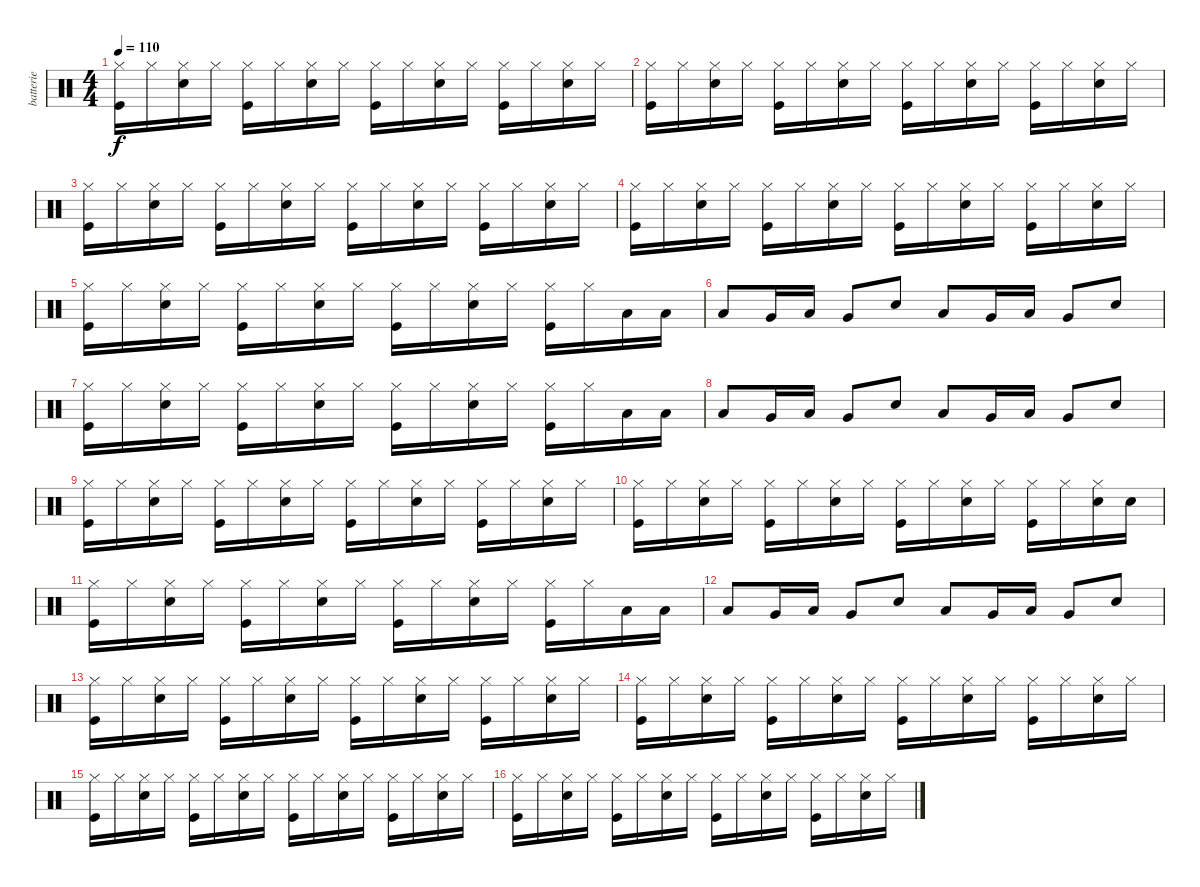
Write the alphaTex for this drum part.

\track ("batterie" "batterie") {instrument percussion}
\staff {score}
\articulation defaults
\ts (4 4)
\tempo 110
\clef neutral
\ks c
("Hi-Hat (closed)" "Kick (hit)").16{dy f} "Hi-Hat (closed)".16 ("Hi-Hat (closed)" "Snare (hit) 2").16 "Hi-Hat (closed)".16 ("Hi-Hat (closed)" "Kick (hit)").16 "Hi-Hat (closed)".16 ("Hi-Hat (closed)" "Snare (hit) 2").16 "Hi-Hat (closed)".16 ("Hi-Hat (closed)" "Kick (hit)").16 "Hi-Hat (closed)".16 ("Hi-Hat (closed)" "Snare (hit) 2").16 "Hi-Hat (closed)".16 ("Hi-Hat (closed)" "Kick (hit)").16 "Hi-Hat (closed)".16 ("Hi-Hat (closed)" "Snare (hit) 2").16 "Hi-Hat (closed)".16 |
("Hi-Hat (closed)" "Kick (hit)").16 "Hi-Hat (closed)".16 ("Hi-Hat (closed)" "Snare (hit) 2").16 "Hi-Hat (closed)".16 ("Hi-Hat (closed)" "Kick (hit)").16 "Hi-Hat (closed)".16 ("Hi-Hat (closed)" "Snare (hit) 2").16 "Hi-Hat (closed)".16 ("Hi-Hat (closed)" "Kick (hit)").16 "Hi-Hat (closed)".16 ("Hi-Hat (closed)" "Snare (hit) 2").16 "Hi-Hat (closed)".16 ("Hi-Hat (closed)" "Kick (hit)").16 "Hi-Hat (closed)".16 ("Hi-Hat (closed)" "Snare (hit) 2").16 "Hi-Hat (closed)".16 |
("Hi-Hat (closed)" "Kick (hit)").16 "Hi-Hat (closed)".16 ("Hi-Hat (closed)" "Snare (hit) 2").16 "Hi-Hat (closed)".16 ("Hi-Hat (closed)" "Kick (hit)").16 "Hi-Hat (closed)".16 ("Hi-Hat (closed)" "Snare (hit) 2").16 "Hi-Hat (closed)".16 ("Hi-Hat (closed)" "Kick (hit)").16 "Hi-Hat (closed)".16 ("Hi-Hat (closed)" "Snare (hit) 2").16 "Hi-Hat (closed)".16 ("Hi-Hat (closed)" "Kick (hit)").16 "Hi-Hat (closed)".16 ("Hi-Hat (closed)" "Snare (hit) 2").16 "Hi-Hat (closed)".16 |
("Hi-Hat (closed)" "Kick (hit)").16 "Hi-Hat (closed)".16 ("Hi-Hat (closed)" "Snare (hit) 2").16 "Hi-Hat (closed)".16 ("Hi-Hat (closed)" "Kick (hit)").16 "Hi-Hat (closed)".16 ("Hi-Hat (closed)" "Snare (hit) 2").16 "Hi-Hat (closed)".16 ("Hi-Hat (closed)" "Kick (hit)").16 "Hi-Hat (closed)".16 ("Hi-Hat (closed)" "Snare (hit) 2").16 "Hi-Hat (closed)".16 ("Hi-Hat (closed)" "Kick (hit)").16 "Hi-Hat (closed)".16 ("Hi-Hat (closed)" "Snare (hit) 2").16 "Hi-Hat (closed)".16 |
("Hi-Hat (closed)" "Kick (hit)").16 "Hi-Hat (closed)".16 ("Hi-Hat (closed)" "Snare (hit) 2").16 "Hi-Hat (closed)".16 ("Hi-Hat (closed)" "Kick (hit)").16 "Hi-Hat (closed)".16 ("Hi-Hat (closed)" "Snare (hit) 2").16 "Hi-Hat (closed)".16 ("Hi-Hat (closed)" "Kick (hit)").16 "Hi-Hat (closed)".16 ("Hi-Hat (closed)" "Snare (hit) 2").16 "Hi-Hat (closed)".16 ("Hi-Hat (closed)" "Kick (hit)").16 "Hi-Hat (closed)".16 "Low Floor Tom (hit)".16 "Low Floor Tom (hit)".16 |
"Low Tom (hit)".8 "Very Low Tom (hit)".16 "Low Floor Tom (hit)".16 "Very Low Tom (hit)".8 "Snare (hit) 2".8 "Low Tom (hit)".8 "Very Low Tom (hit)".16 "Low Floor Tom (hit)".16 "Very Low Tom (hit)".8 "Snare (hit) 2".8 |
("Hi-Hat (closed)" "Kick (hit)").16 "Hi-Hat (closed)".16 ("Hi-Hat (closed)" "Snare (hit) 2").16 "Hi-Hat (closed)".16 ("Hi-Hat (closed)" "Kick (hit)").16 "Hi-Hat (closed)".16 ("Hi-Hat (closed)" "Snare (hit) 2").16 "Hi-Hat (closed)".16 ("Hi-Hat (closed)" "Kick (hit)").16 "Hi-Hat (closed)".16 ("Hi-Hat (closed)" "Snare (hit) 2").16 "Hi-Hat (closed)".16 ("Hi-Hat (closed)" "Kick (hit)").16 "Hi-Hat (closed)".16 "Low Floor Tom (hit)".16 "Low Floor Tom (hit)".16 |
"Low Tom (hit)".8 "Very Low Tom (hit)".16 "Low Floor Tom (hit)".16 "Very Low Tom (hit)".8 "Snare (hit) 2".8 "Low Tom (hit)".8 "Very Low Tom (hit)".16 "Low Floor Tom (hit)".16 "Very Low Tom (hit)".8 "Snare (hit) 2".8 |
("Hi-Hat (closed)" "Kick (hit)").16 "Hi-Hat (closed)".16 ("Hi-Hat (closed)" "Snare (hit) 2").16 "Hi-Hat (closed)".16 ("Hi-Hat (closed)" "Kick (hit)").16 "Hi-Hat (closed)".16 ("Hi-Hat (closed)" "Snare (hit) 2").16 "Hi-Hat (closed)".16 ("Hi-Hat (closed)" "Kick (hit)").16 "Hi-Hat (closed)".16 ("Hi-Hat (closed)" "Snare (hit) 2").16 "Hi-Hat (closed)".16 ("Hi-Hat (closed)" "Kick (hit)").16 "Hi-Hat (closed)".16 ("Hi-Hat (closed)" "Snare (hit) 2").16 "Hi-Hat (closed)".16 |
("Hi-Hat (closed)" "Kick (hit)").16 "Hi-Hat (closed)".16 ("Hi-Hat (closed)" "Snare (hit) 2").16 "Hi-Hat (closed)".16 ("Hi-Hat (closed)" "Kick (hit)").16 "Hi-Hat (closed)".16 ("Hi-Hat (closed)" "Snare (hit) 2").16 "Hi-Hat (closed)".16 ("Hi-Hat (closed)" "Kick (hit)").16 "Hi-Hat (closed)".16 ("Hi-Hat (closed)" "Snare (hit) 2").16 "Hi-Hat (closed)".16 ("Hi-Hat (closed)" "Kick (hit)").16 "Hi-Hat (closed)".16 ("Hi-Hat (closed)" "Snare (hit) 2").16 "Snare (hit)".16 |
("Hi-Hat (closed)" "Kick (hit)").16 "Hi-Hat (closed)".16 ("Hi-Hat (closed)" "Snare (hit) 2").16 "Hi-Hat (closed)".16 ("Hi-Hat (closed)" "Kick (hit)").16 "Hi-Hat (closed)".16 ("Hi-Hat (closed)" "Snare (hit) 2").16 "Hi-Hat (closed)".16 ("Hi-Hat (closed)" "Kick (hit)").16 "Hi-Hat (closed)".16 ("Hi-Hat (closed)" "Snare (hit) 2").16 "Hi-Hat (closed)".16 ("Hi-Hat (closed)" "Kick (hit)").16 "Hi-Hat (closed)".16 "Low Floor Tom (hit)".16 "Low Floor Tom (hit)".16 |
"Low Tom (hit)".8 "Very Low Tom (hit)".16 "Low Floor Tom (hit)".16 "Very Low Tom (hit)".8 "Snare (hit) 2".8 "Low Tom (hit)".8 "Very Low Tom (hit)".16 "Low Floor Tom (hit)".16 "Very Low Tom (hit)".8 "Snare (hit) 2".8 |
("Hi-Hat (closed)" "Kick (hit)").16 "Hi-Hat (closed)".16 ("Hi-Hat (closed)" "Snare (hit) 2").16 "Hi-Hat (closed)".16 ("Hi-Hat (closed)" "Kick (hit)").16 "Hi-Hat (closed)".16 ("Hi-Hat (closed)" "Snare (hit) 2").16 "Hi-Hat (closed)".16 ("Hi-Hat (closed)" "Kick (hit)").16 "Hi-Hat (closed)".16 ("Hi-Hat (closed)" "Snare (hit) 2").16 "Hi-Hat (closed)".16 ("Hi-Hat (closed)" "Kick (hit)").16 "Hi-Hat (closed)".16 ("Hi-Hat (closed)" "Snare (hit) 2").16 "Hi-Hat (closed)".16 |
("Hi-Hat (closed)" "Kick (hit)").16 "Hi-Hat (closed)".16 ("Hi-Hat (closed)" "Snare (hit) 2").16 "Hi-Hat (closed)".16 ("Hi-Hat (closed)" "Kick (hit)").16 "Hi-Hat (closed)".16 ("Hi-Hat (closed)" "Snare (hit) 2").16 "Hi-Hat (closed)".16 ("Hi-Hat (closed)" "Kick (hit)").16 "Hi-Hat (closed)".16 ("Hi-Hat (closed)" "Snare (hit) 2").16 "Hi-Hat (closed)".16 ("Hi-Hat (closed)" "Kick (hit)").16 "Hi-Hat (closed)".16 ("Hi-Hat (closed)" "Snare (hit) 2").16 "Hi-Hat (closed)".16 |
("Hi-Hat (closed)" "Kick (hit)").16 "Hi-Hat (closed)".16 ("Hi-Hat (closed)" "Snare (hit) 2").16 "Hi-Hat (closed)".16 ("Hi-Hat (closed)" "Kick (hit)").16 "Hi-Hat (closed)".16 ("Hi-Hat (closed)" "Snare (hit) 2").16 "Hi-Hat (closed)".16 ("Hi-Hat (closed)" "Kick (hit)").16 "Hi-Hat (closed)".16 ("Hi-Hat (closed)" "Snare (hit) 2").16 "Hi-Hat (closed)".16 ("Hi-Hat (closed)" "Kick (hit)").16 "Hi-Hat (closed)".16 ("Hi-Hat (closed)" "Snare (hit) 2").16 "Hi-Hat (closed)".16 |
("Hi-Hat (closed)" "Kick (hit)").16 "Hi-Hat (closed)".16 ("Hi-Hat (closed)" "Snare (hit) 2").16 "Hi-Hat (closed)".16 ("Hi-Hat (closed)" "Kick (hit)").16 "Hi-Hat (closed)".16 ("Hi-Hat (closed)" "Snare (hit) 2").16 "Hi-Hat (closed)".16 ("Hi-Hat (closed)" "Kick (hit)").16 "Hi-Hat (closed)".16 ("Hi-Hat (closed)" "Snare (hit) 2").16 "Hi-Hat (closed)".16 ("Hi-Hat (closed)" "Kick (hit)").16 "Hi-Hat (closed)".16 ("Hi-Hat (closed)" "Snare (hit) 2").16 "Hi-Hat (closed)".16
